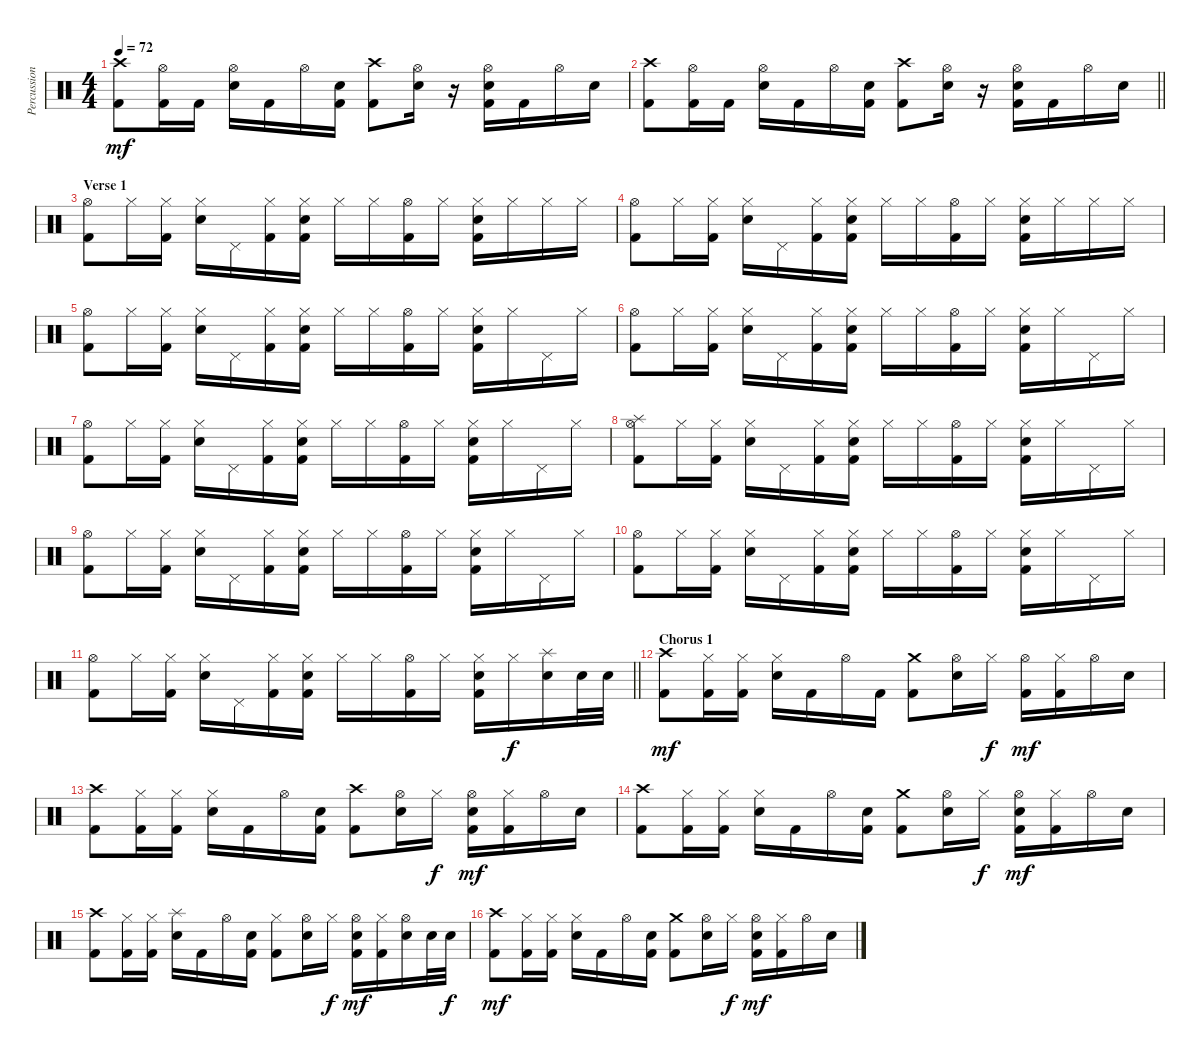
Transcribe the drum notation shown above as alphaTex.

\track ("Percussion" "Percussion") {instrument percussion}
\staff {score}
\articulation defaults
\ts (4 4)
\tempo 72
\clef neutral
\ks c
("Crash high (hit)" "Kick (hit) 2").8{dy mf} ("Hi-Hat (open)" "Kick (hit) 2").16 "Kick (hit) 2".16 ("Hi-Hat (open)" "Snare (hit) 2").16 "Kick (hit) 2".16 "Hi-Hat (open)".16 ("Snare (hit) 2" "Kick (hit) 2").16 ("Crash high (hit)" "Kick (hit) 2").8 ("Hi-Hat (open)" "Snare (hit) 2").16 r.16 ("Hi-Hat (open)" "Snare (hit) 2" "Kick (hit) 2").16 "Kick (hit) 2".16 "Hi-Hat (open)".16 "Snare (hit) 2".16 |
\barLineRight lightlight
("Crash high (hit)" "Kick (hit) 2").8 ("Hi-Hat (open)" "Kick (hit) 2").16 "Kick (hit) 2".16 ("Hi-Hat (open)" "Snare (hit) 2").16 "Kick (hit) 2".16 "Hi-Hat (open)".16 ("Snare (hit) 2" "Kick (hit) 2").16 ("Crash high (hit)" "Kick (hit) 2").8 ("Hi-Hat (open)" "Snare (hit) 2").16 r.16 ("Hi-Hat (open)" "Snare (hit) 2" "Kick (hit) 2").16 "Kick (hit) 2".16 "Hi-Hat (open)".16 "Snare (hit) 2".16 |
\section ("" "Verse 1")
("Hi-Hat (open)" "Kick (hit) 2").8 "Hi-Hat (closed)".16 ("Hi-Hat (closed)" "Kick (hit) 2").16 ("Hi-Hat (closed)" "Snare (hit) 2").16 "Pedal Hi-Hat (hit)".16 ("Hi-Hat (closed)" "Kick (hit) 2").16 ("Hi-Hat (closed)" "Snare (hit) 2" "Kick (hit) 2").16 "Hi-Hat (closed)".16 "Hi-Hat (closed)".16 ("Hi-Hat (open)" "Kick (hit) 2").16 "Hi-Hat (closed)".16 ("Hi-Hat (closed)" "Snare (hit) 2" "Kick (hit) 2").16 "Hi-Hat (closed)".16 "Hi-Hat (closed)".16 "Hi-Hat (closed)".16 |
("Hi-Hat (open)" "Kick (hit) 2").8 "Hi-Hat (closed)".16 ("Hi-Hat (closed)" "Kick (hit) 2").16 ("Hi-Hat (closed)" "Snare (hit) 2").16 "Pedal Hi-Hat (hit)".16 ("Hi-Hat (closed)" "Kick (hit) 2").16 ("Hi-Hat (closed)" "Snare (hit) 2" "Kick (hit) 2").16 "Hi-Hat (closed)".16 "Hi-Hat (closed)".16 ("Hi-Hat (open)" "Kick (hit) 2").16 "Hi-Hat (closed)".16 ("Hi-Hat (closed)" "Snare (hit) 2" "Kick (hit) 2").16 "Hi-Hat (closed)".16 "Hi-Hat (closed)".16 "Hi-Hat (closed)".16 |
("Hi-Hat (open)" "Kick (hit) 2").8 "Hi-Hat (closed)".16 ("Hi-Hat (closed)" "Kick (hit) 2").16 ("Hi-Hat (closed)" "Snare (hit) 2").16 "Pedal Hi-Hat (hit)".16 ("Hi-Hat (closed)" "Kick (hit) 2").16 ("Hi-Hat (closed)" "Snare (hit) 2" "Kick (hit) 2").16 "Hi-Hat (closed)".16 "Hi-Hat (closed)".16 ("Hi-Hat (open)" "Kick (hit) 2").16 "Hi-Hat (closed)".16 ("Hi-Hat (closed)" "Snare (hit) 2" "Kick (hit) 2").16 "Hi-Hat (closed)".16 "Pedal Hi-Hat (hit)".16 "Hi-Hat (closed)".16 |
("Hi-Hat (open)" "Kick (hit) 2").8 "Hi-Hat (closed)".16 ("Hi-Hat (closed)" "Kick (hit) 2").16 ("Hi-Hat (closed)" "Snare (hit) 2").16 "Pedal Hi-Hat (hit)".16 ("Hi-Hat (closed)" "Kick (hit) 2").16 ("Hi-Hat (closed)" "Snare (hit) 2" "Kick (hit) 2").16 "Hi-Hat (closed)".16 "Hi-Hat (closed)".16 ("Hi-Hat (open)" "Kick (hit) 2").16 "Hi-Hat (closed)".16 ("Hi-Hat (closed)" "Snare (hit) 2" "Kick (hit) 2").16 "Hi-Hat (closed)".16 "Pedal Hi-Hat (hit)".16 "Hi-Hat (closed)".16 |
("Hi-Hat (open)" "Kick (hit) 2").8 "Hi-Hat (closed)".16 ("Hi-Hat (closed)" "Kick (hit) 2").16 ("Hi-Hat (closed)" "Snare (hit) 2").16 "Pedal Hi-Hat (hit)".16 ("Hi-Hat (closed)" "Kick (hit) 2").16 ("Hi-Hat (closed)" "Snare (hit) 2" "Kick (hit) 2").16 "Hi-Hat (closed)".16 "Hi-Hat (closed)".16 ("Hi-Hat (open)" "Kick (hit) 2").16 "Hi-Hat (closed)".16 ("Hi-Hat (closed)" "Snare (hit) 2" "Kick (hit) 2").16 "Hi-Hat (closed)".16 "Pedal Hi-Hat (hit)".16 "Hi-Hat (closed)".16 |
("Hi-Hat (open)" "Splash (hit)" "Kick (hit) 2").8 "Hi-Hat (closed)".16 ("Hi-Hat (closed)" "Kick (hit) 2").16 ("Hi-Hat (closed)" "Snare (hit) 2").16 "Pedal Hi-Hat (hit)".16 ("Hi-Hat (closed)" "Kick (hit) 2").16 ("Hi-Hat (closed)" "Snare (hit) 2" "Kick (hit) 2").16 "Hi-Hat (closed)".16 "Hi-Hat (closed)".16 ("Hi-Hat (open)" "Kick (hit) 2").16 "Hi-Hat (closed)".16 ("Hi-Hat (closed)" "Snare (hit) 2" "Kick (hit) 2").16 "Hi-Hat (closed)".16 "Pedal Hi-Hat (hit)".16 "Hi-Hat (closed)".16 |
("Hi-Hat (open)" "Kick (hit) 2").8 "Hi-Hat (closed)".16 ("Hi-Hat (closed)" "Kick (hit) 2").16 ("Hi-Hat (closed)" "Snare (hit) 2").16 "Pedal Hi-Hat (hit)".16 ("Hi-Hat (closed)" "Kick (hit) 2").16 ("Hi-Hat (closed)" "Snare (hit) 2" "Kick (hit) 2").16 "Hi-Hat (closed)".16 "Hi-Hat (closed)".16 ("Hi-Hat (open)" "Kick (hit) 2").16 "Hi-Hat (closed)".16 ("Hi-Hat (closed)" "Snare (hit) 2" "Kick (hit) 2").16 "Hi-Hat (closed)".16 "Pedal Hi-Hat (hit)".16 "Hi-Hat (closed)".16 |
("Hi-Hat (open)" "Kick (hit) 2").8 "Hi-Hat (closed)".16 ("Hi-Hat (closed)" "Kick (hit) 2").16 ("Hi-Hat (closed)" "Snare (hit) 2").16 "Pedal Hi-Hat (hit)".16 ("Hi-Hat (closed)" "Kick (hit) 2").16 ("Hi-Hat (closed)" "Snare (hit) 2" "Kick (hit) 2").16 "Hi-Hat (closed)".16 "Hi-Hat (closed)".16 ("Hi-Hat (open)" "Kick (hit) 2").16 "Hi-Hat (closed)".16 ("Hi-Hat (closed)" "Snare (hit) 2" "Kick (hit) 2").16 "Hi-Hat (closed)".16 "Pedal Hi-Hat (hit)".16 "Hi-Hat (closed)".16 |
\barLineRight lightlight
("Hi-Hat (open)" "Kick (hit) 2").8 "Hi-Hat (closed)".16 ("Hi-Hat (closed)" "Kick (hit) 2").16 ("Hi-Hat (closed)" "Snare (hit) 2").16 "Pedal Hi-Hat (hit)".16 ("Hi-Hat (closed)" "Kick (hit) 2").16 ("Hi-Hat (closed)" "Snare (hit) 2" "Kick (hit) 2").16 "Hi-Hat (closed)".16 "Hi-Hat (closed)".16 ("Hi-Hat (open)" "Kick (hit) 2").16 "Hi-Hat (closed)".16 ("Hi-Hat (closed)" "Snare (hit) 2" "Kick (hit) 2").16 "Hi-Hat (closed)".16{dy f} ("Splash (hit)" "Snare (hit) 2").16 "Snare (hit) 2".32 "Snare (hit) 2".32 |
\section ("" "Chorus 1")
("Crash high (hit)" "Kick (hit) 2").8{dy mf} ("Hi-Hat (closed)" "Kick (hit) 2").16 ("Hi-Hat (closed)" "Kick (hit) 2").16 ("Hi-Hat (closed)" "Snare (hit) 2").16 "Kick (hit) 2".16 "Hi-Hat (open)".16 "Kick (hit) 2".16 ("Crash medium (hit)" "Kick (hit) 2").8 ("Hi-Hat (open)" "Snare (hit) 2").16 "Hi-Hat (closed)".16{dy f} ("Hi-Hat (open)" "Kick (hit) 2").16{dy mf} ("Hi-Hat (closed)" "Kick (hit) 2").16 "Hi-Hat (open)".16 "Snare (hit) 2".16 |
("Crash high (hit)" "Kick (hit) 2").8 ("Hi-Hat (closed)" "Kick (hit) 2").16 ("Hi-Hat (closed)" "Kick (hit) 2").16 ("Hi-Hat (closed)" "Snare (hit) 2").16 "Kick (hit) 2".16 "Hi-Hat (open)".16 ("Snare (hit) 2" "Kick (hit) 2").16 ("Crash high (hit)" "Kick (hit) 2").8 ("Hi-Hat (open)" "Snare (hit) 2").16 "Hi-Hat (closed)".16{dy f} ("Hi-Hat (open)" "Snare (hit) 2" "Kick (hit) 2").16{dy mf} ("Hi-Hat (closed)" "Kick (hit) 2").16 "Hi-Hat (open)".16 "Snare (hit) 2".16 |
("Crash high (hit)" "Kick (hit) 2").8 ("Hi-Hat (closed)" "Kick (hit) 2").16 ("Hi-Hat (closed)" "Kick (hit) 2").16 ("Hi-Hat (closed)" "Snare (hit) 2").16 "Kick (hit) 2".16 "Hi-Hat (open)".16 ("Snare (hit) 2" "Kick (hit) 2").16 ("Crash medium (hit)" "Kick (hit) 2").8 ("Hi-Hat (open)" "Snare (hit) 2").16 "Hi-Hat (closed)".16{dy f} ("Hi-Hat (open)" "Snare (hit) 2" "Kick (hit) 2").16{dy mf} ("Hi-Hat (closed)" "Kick (hit) 2").16 "Hi-Hat (open)".16 "Snare (hit) 2".16 |
("Crash high (hit)" "Kick (hit) 2").8 ("Hi-Hat (closed)" "Kick (hit) 2").16 ("Hi-Hat (closed)" "Kick (hit) 2").16 ("Splash (hit)" "Snare (hit) 2").16 "Kick (hit) 2".16 "Hi-Hat (open)".16 ("Snare (hit) 2" "Kick (hit) 2").16 ("Hi-Hat (closed)" "Kick (hit) 2").8 ("Hi-Hat (open)" "Snare (hit) 2").16 "Hi-Hat (closed)".16{dy f} ("Hi-Hat (open)" "Snare (hit) 2" "Kick (hit) 2").16{dy mf} ("Hi-Hat (closed)" "Kick (hit) 2").16 ("Hi-Hat (open)" "Snare (hit) 2").16 "Snare (hit) 2".32 "Snare (hit) 2".32{dy f} |
("Crash high (hit)" "Kick (hit) 2").8{dy mf} ("Hi-Hat (closed)" "Kick (hit) 2").16 ("Hi-Hat (closed)" "Kick (hit) 2").16 ("Hi-Hat (closed)" "Snare (hit) 2").16 "Kick (hit) 2".16 "Hi-Hat (open)".16 ("Snare (hit) 2" "Kick (hit) 2").16 ("Crash medium (hit)" "Kick (hit) 2").8 ("Hi-Hat (open)" "Snare (hit) 2").16 "Hi-Hat (closed)".16{dy f} ("Hi-Hat (open)" "Snare (hit) 2" "Kick (hit) 2").16{dy mf} ("Hi-Hat (closed)" "Kick (hit) 2").16 "Hi-Hat (open)".16 "Snare (hit) 2".16
